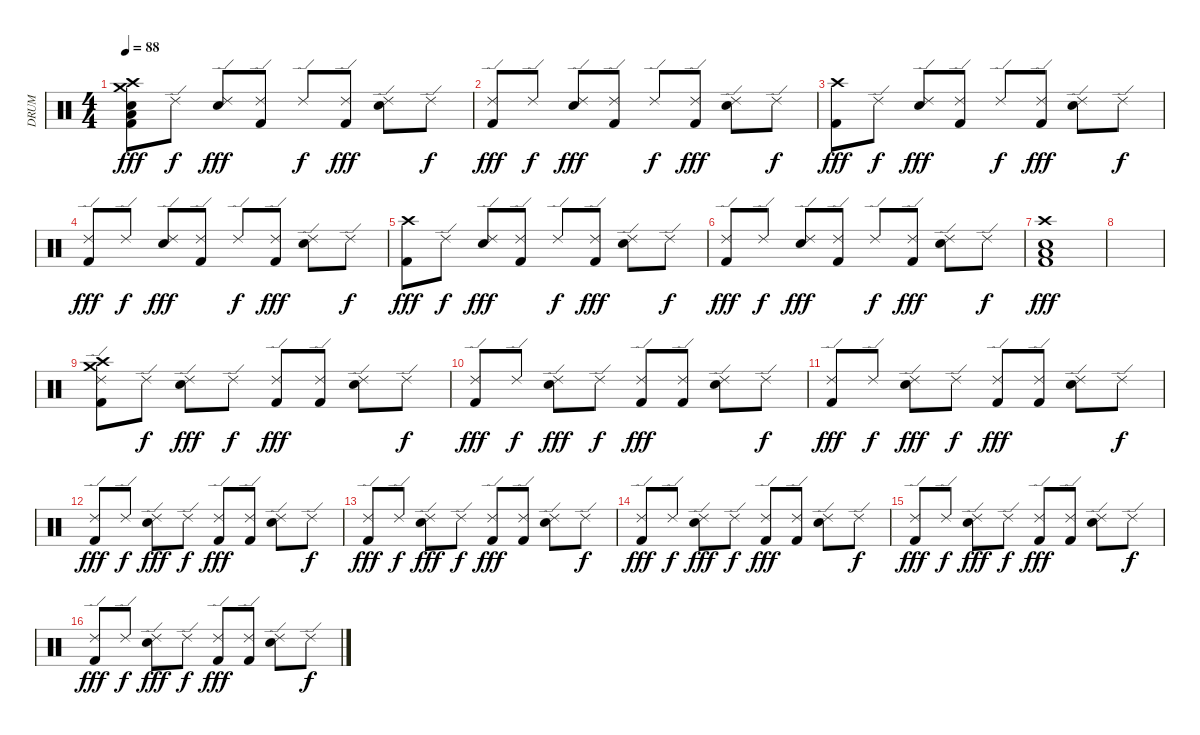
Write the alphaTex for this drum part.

\track ("DRUM" "DRUM") {instrument percussion}
\staff {score}
\articulation defaults
\ts (4 4)
\tempo 88
\clef neutral
\ks c
("Crash high (hit)" "Crash medium (hit)" "Low Tom (hit)" "Snare (hit) 2" "Kick (hit) 2").8{dy fff} "Ride (edge) 2".8{dy f} ("Ride (edge) 2" "Snare (hit) 2").8{dy fff} ("Ride (edge) 2" "Kick (hit) 2").8 "Ride (edge) 2".8{dy f} ("Ride (edge) 2" "Kick (hit) 2").8{dy fff} ("Ride (edge) 2" "Snare (hit) 2").8 "Ride (edge) 2".8{dy f} |
("Ride (edge) 2" "Kick (hit) 2").8{dy fff} "Ride (edge) 2".8{dy f} ("Ride (edge) 2" "Snare (hit) 2").8{dy fff} ("Ride (edge) 2" "Kick (hit) 2").8 "Ride (edge) 2".8{dy f} ("Ride (edge) 2" "Kick (hit) 2").8{dy fff} ("Ride (edge) 2" "Snare (hit) 2").8 "Ride (edge) 2".8{dy f} |
("Crash high (hit)" "Kick (hit) 2").8{dy fff} "Ride (edge) 2".8{dy f} ("Ride (edge) 2" "Snare (hit) 2").8{dy fff} ("Ride (edge) 2" "Kick (hit) 2").8 "Ride (edge) 2".8{dy f} ("Ride (edge) 2" "Kick (hit) 2").8{dy fff} ("Ride (edge) 2" "Snare (hit) 2").8 "Ride (edge) 2".8{dy f} |
("Ride (edge) 2" "Kick (hit) 2").8{dy fff} "Ride (edge) 2".8{dy f} ("Ride (edge) 2" "Snare (hit) 2").8{dy fff} ("Ride (edge) 2" "Kick (hit) 2").8 "Ride (edge) 2".8{dy f} ("Ride (edge) 2" "Kick (hit) 2").8{dy fff} ("Ride (edge) 2" "Snare (hit) 2").8 "Ride (edge) 2".8{dy f} |
("Crash high (hit)" "Kick (hit) 2").8{dy fff} "Ride (edge) 2".8{dy f} ("Ride (edge) 2" "Snare (hit) 2").8{dy fff} ("Ride (edge) 2" "Kick (hit) 2").8 "Ride (edge) 2".8{dy f} ("Ride (edge) 2" "Kick (hit) 2").8{dy fff} ("Ride (edge) 2" "Snare (hit) 2").8 "Ride (edge) 2".8{dy f} |
("Ride (edge) 2" "Kick (hit) 2").8{dy fff} "Ride (edge) 2".8{dy f} ("Ride (edge) 2" "Snare (hit) 2").8{dy fff} ("Ride (edge) 2" "Kick (hit) 2").8 "Ride (edge) 2".8{dy f} ("Ride (edge) 2" "Kick (hit) 2").8{dy fff} ("Ride (edge) 2" "Snare (hit) 2").8 "Ride (edge) 2".8{dy f} |
("Crash high (hit)" "Low Tom (hit)" "Snare (hit) 2" "Kick (hit) 2").1{dy fff} |
|
("Ride (edge) 2" "Crash high (hit)" "Crash medium (hit)" "Kick (hit) 2").8 "Ride (edge) 2".8{dy f} ("Ride (edge) 2" "Snare (hit) 2").8{dy fff} "Ride (edge) 2".8{dy f} ("Ride (edge) 2" "Kick (hit) 2").8{dy fff} ("Ride (edge) 2" "Kick (hit) 2").8 ("Ride (edge) 2" "Snare (hit) 2").8 "Ride (edge) 2".8{dy f} |
("Ride (edge) 2" "Kick (hit) 2").8{dy fff} "Ride (edge) 2".8{dy f} ("Ride (edge) 2" "Snare (hit) 2").8{dy fff} "Ride (edge) 2".8{dy f} ("Ride (edge) 2" "Kick (hit) 2").8{dy fff} ("Ride (edge) 2" "Kick (hit) 2").8 ("Ride (edge) 2" "Snare (hit) 2").8 "Ride (edge) 2".8{dy f} |
("Ride (edge) 2" "Kick (hit) 2").8{dy fff} "Ride (edge) 2".8{dy f} ("Ride (edge) 2" "Snare (hit) 2").8{dy fff} "Ride (edge) 2".8{dy f} ("Ride (edge) 2" "Kick (hit) 2").8{dy fff} ("Ride (edge) 2" "Kick (hit) 2").8 ("Ride (edge) 2" "Snare (hit) 2").8 "Ride (edge) 2".8{dy f} |
("Ride (edge) 2" "Kick (hit) 2").8{dy fff} "Ride (edge) 2".8{dy f} ("Ride (edge) 2" "Snare (hit) 2").8{dy fff} "Ride (edge) 2".8{dy f} ("Ride (edge) 2" "Kick (hit) 2").8{dy fff} ("Ride (edge) 2" "Kick (hit) 2").8 ("Ride (edge) 2" "Snare (hit) 2").8 "Ride (edge) 2".8{dy f} |
("Ride (edge) 2" "Kick (hit) 2").8{dy fff} "Ride (edge) 2".8{dy f} ("Ride (edge) 2" "Snare (hit) 2").8{dy fff} "Ride (edge) 2".8{dy f} ("Ride (edge) 2" "Kick (hit) 2").8{dy fff} ("Ride (edge) 2" "Kick (hit) 2").8 ("Ride (edge) 2" "Snare (hit) 2").8 "Ride (edge) 2".8{dy f} |
("Ride (edge) 2" "Kick (hit) 2").8{dy fff} "Ride (edge) 2".8{dy f} ("Ride (edge) 2" "Snare (hit) 2").8{dy fff} "Ride (edge) 2".8{dy f} ("Ride (edge) 2" "Kick (hit) 2").8{dy fff} ("Ride (edge) 2" "Kick (hit) 2").8 ("Ride (edge) 2" "Snare (hit) 2").8 "Ride (edge) 2".8{dy f} |
("Ride (edge) 2" "Kick (hit) 2").8{dy fff} "Ride (edge) 2".8{dy f} ("Ride (edge) 2" "Snare (hit) 2").8{dy fff} "Ride (edge) 2".8{dy f} ("Ride (edge) 2" "Kick (hit) 2").8{dy fff} ("Ride (edge) 2" "Kick (hit) 2").8 ("Ride (edge) 2" "Snare (hit) 2").8 "Ride (edge) 2".8{dy f} |
("Ride (edge) 2" "Kick (hit) 2").8{dy fff} "Ride (edge) 2".8{dy f} ("Ride (edge) 2" "Snare (hit) 2").8{dy fff} "Ride (edge) 2".8{dy f} ("Ride (edge) 2" "Kick (hit) 2").8{dy fff} ("Ride (edge) 2" "Kick (hit) 2").8 ("Ride (edge) 2" "Snare (hit) 2").8 "Ride (edge) 2".8{dy f}
